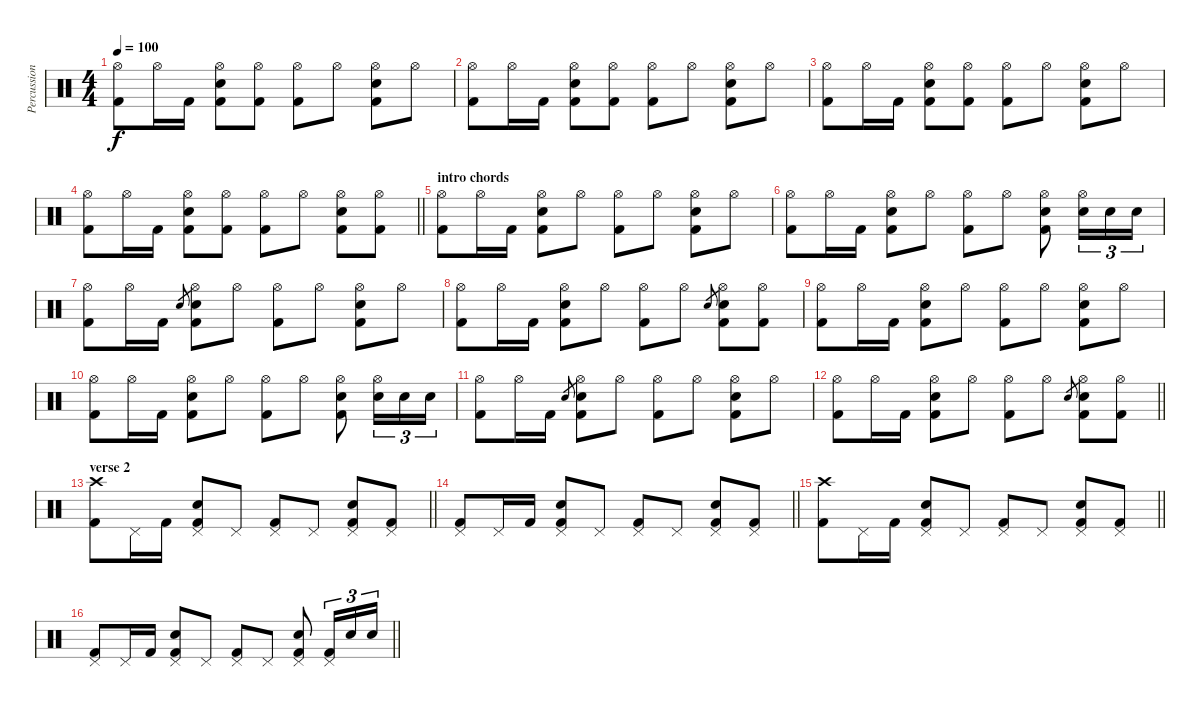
\track ("Percussion" "Percussion") {instrument percussion}
\staff {score}
\articulation defaults
\ts (4 4)
\tempo 100
\clef neutral
\ks c
("Hi-Hat (open)" "Kick (hit) 2").8{dy f} "Hi-Hat (open)".16 "Kick (hit) 2".16 ("Hi-Hat (open)" "Electric Snare (hit)" "Kick (hit) 2").8 ("Hi-Hat (open)" "Kick (hit) 2").8 ("Hi-Hat (open)" "Kick (hit) 2").8 "Hi-Hat (open)".8 ("Hi-Hat (open)" "Electric Snare (hit)" "Kick (hit) 2").8 "Hi-Hat (open)".8 |
("Hi-Hat (open)" "Kick (hit) 2").8 "Hi-Hat (open)".16 "Kick (hit) 2".16 ("Hi-Hat (open)" "Electric Snare (hit)" "Kick (hit) 2").8 ("Hi-Hat (open)" "Kick (hit) 2").8 ("Hi-Hat (open)" "Kick (hit) 2").8 "Hi-Hat (open)".8 ("Hi-Hat (open)" "Electric Snare (hit)" "Kick (hit) 2").8 "Hi-Hat (open)".8 |
("Hi-Hat (open)" "Kick (hit) 2").8 "Hi-Hat (open)".16 "Kick (hit) 2".16 ("Hi-Hat (open)" "Electric Snare (hit)" "Kick (hit) 2").8 ("Hi-Hat (open)" "Kick (hit) 2").8 ("Hi-Hat (open)" "Kick (hit) 2").8 "Hi-Hat (open)".8 ("Hi-Hat (open)" "Electric Snare (hit)" "Kick (hit) 2").8 "Hi-Hat (open)".8 |
\barLineRight lightlight
("Hi-Hat (open)" "Kick (hit) 2").8 "Hi-Hat (open)".16 "Kick (hit) 2".16 ("Hi-Hat (open)" "Electric Snare (hit)" "Kick (hit) 2").8 ("Hi-Hat (open)" "Kick (hit) 2").8 ("Hi-Hat (open)" "Kick (hit) 2").8 "Hi-Hat (open)".8 ("Hi-Hat (open)" "Electric Snare (hit)" "Kick (hit) 2").8 ("Hi-Hat (open)" "Kick (hit) 2").8 |
\section ("" "intro chords")
("Hi-Hat (open)" "Kick (hit) 2").8 "Hi-Hat (open)".16 "Kick (hit) 2".16 ("Hi-Hat (open)" "Electric Snare (hit)" "Kick (hit) 2").8 "Hi-Hat (open)".8 ("Hi-Hat (open)" "Kick (hit) 2").8 "Hi-Hat (open)".8 ("Hi-Hat (open)" "Electric Snare (hit)" "Kick (hit) 2").8 "Hi-Hat (open)".8 |
("Hi-Hat (open)" "Kick (hit) 2").8 "Hi-Hat (open)".16 "Kick (hit) 2".16 ("Hi-Hat (open)" "Electric Snare (hit)" "Kick (hit) 2").8 "Hi-Hat (open)".8 ("Hi-Hat (open)" "Kick (hit) 2").8 "Hi-Hat (open)".8 ("Hi-Hat (open)" "Electric Snare (hit)" "Kick (hit) 2").8 ("Hi-Hat (open)" "Electric Snare (hit)").16{tu (3 2)} "Electric Snare (hit)".16{tu (3 2)} "Electric Snare (hit)".16{tu (3 2)} |
("Hi-Hat (open)" "Kick (hit) 2").8 "Hi-Hat (open)".16 "Kick (hit) 2".16 "Electric Snare (hit)".8{gr} ("Hi-Hat (open)" "Electric Snare (hit)" "Kick (hit) 2").8 "Hi-Hat (open)".8 ("Hi-Hat (open)" "Kick (hit) 2").8 "Hi-Hat (open)".8 ("Hi-Hat (open)" "Electric Snare (hit)" "Kick (hit) 2").8 "Hi-Hat (open)".8 |
("Hi-Hat (open)" "Kick (hit) 2").8 "Hi-Hat (open)".16 "Kick (hit) 2".16 ("Hi-Hat (open)" "Electric Snare (hit)" "Kick (hit) 2").8 "Hi-Hat (open)".8 ("Hi-Hat (open)" "Kick (hit) 2").8 "Hi-Hat (open)".8 "Electric Snare (hit)".8{gr} ("Hi-Hat (open)" "Electric Snare (hit)" "Kick (hit) 2").8 ("Hi-Hat (open)" "Kick (hit) 2").8 |
("Hi-Hat (open)" "Kick (hit) 2").8 "Hi-Hat (open)".16 "Kick (hit) 2".16 ("Hi-Hat (open)" "Electric Snare (hit)" "Kick (hit) 2").8 "Hi-Hat (open)".8 ("Hi-Hat (open)" "Kick (hit) 2").8 "Hi-Hat (open)".8 ("Hi-Hat (open)" "Electric Snare (hit)" "Kick (hit) 2").8 "Hi-Hat (open)".8 |
("Hi-Hat (open)" "Kick (hit) 2").8 "Hi-Hat (open)".16 "Kick (hit) 2".16 ("Hi-Hat (open)" "Electric Snare (hit)" "Kick (hit) 2").8 "Hi-Hat (open)".8 ("Hi-Hat (open)" "Kick (hit) 2").8 "Hi-Hat (open)".8 ("Hi-Hat (open)" "Electric Snare (hit)" "Kick (hit) 2").8 ("Hi-Hat (open)" "Electric Snare (hit)").16{tu (3 2)} "Electric Snare (hit)".16{tu (3 2)} "Electric Snare (hit)".16{tu (3 2)} |
("Hi-Hat (open)" "Kick (hit) 2").8 "Hi-Hat (open)".16 "Kick (hit) 2".16 "Electric Snare (hit)".8{gr} ("Hi-Hat (open)" "Electric Snare (hit)" "Kick (hit) 2").8 "Hi-Hat (open)".8 ("Hi-Hat (open)" "Kick (hit) 2").8 "Hi-Hat (open)".8 ("Hi-Hat (open)" "Electric Snare (hit)" "Kick (hit) 2").8 "Hi-Hat (open)".8 |
\barLineRight lightlight
("Hi-Hat (open)" "Kick (hit) 2").8 "Hi-Hat (open)".16 "Kick (hit) 2".16 ("Hi-Hat (open)" "Electric Snare (hit)" "Kick (hit) 2").8 "Hi-Hat (open)".8 ("Hi-Hat (open)" "Kick (hit) 2").8 "Hi-Hat (open)".8 "Electric Snare (hit)".8{gr} ("Hi-Hat (open)" "Electric Snare (hit)" "Kick (hit) 2").8 ("Hi-Hat (open)" "Kick (hit) 2").8 |
\section ("" "verse 2")
\barLineRight lightlight
("Crash high (hit)" "Kick (hit) 2").8 "Pedal Hi-Hat (hit)".16 "Kick (hit) 2".16 ("Pedal Hi-Hat (hit)" "Electric Snare (hit)" "Kick (hit) 2").8 "Pedal Hi-Hat (hit)".8 ("Pedal Hi-Hat (hit)" "Kick (hit) 2").8 "Pedal Hi-Hat (hit)".8 ("Pedal Hi-Hat (hit)" "Electric Snare (hit)" "Kick (hit) 2").8 ("Pedal Hi-Hat (hit)" "Kick (hit) 2").8 |
\barLineRight lightlight
("Pedal Hi-Hat (hit)" "Kick (hit) 2").8 "Pedal Hi-Hat (hit)".16 "Kick (hit) 2".16 ("Pedal Hi-Hat (hit)" "Electric Snare (hit)" "Kick (hit) 2").8 "Pedal Hi-Hat (hit)".8 ("Pedal Hi-Hat (hit)" "Kick (hit) 2").8 "Pedal Hi-Hat (hit)".8 ("Pedal Hi-Hat (hit)" "Electric Snare (hit)" "Kick (hit) 2").8 ("Pedal Hi-Hat (hit)" "Kick (hit) 2").8 |
\barLineRight lightlight
("Crash high (hit)" "Kick (hit) 2").8 "Pedal Hi-Hat (hit)".16 "Kick (hit) 2".16 ("Pedal Hi-Hat (hit)" "Electric Snare (hit)" "Kick (hit) 2").8 "Pedal Hi-Hat (hit)".8 ("Pedal Hi-Hat (hit)" "Kick (hit) 2").8 "Pedal Hi-Hat (hit)".8 ("Pedal Hi-Hat (hit)" "Electric Snare (hit)" "Kick (hit) 2").8 ("Pedal Hi-Hat (hit)" "Kick (hit) 2").8 |
\barLineRight lightlight
("Pedal Hi-Hat (hit)" "Kick (hit) 2").8 "Pedal Hi-Hat (hit)".16 "Kick (hit) 2".16 ("Pedal Hi-Hat (hit)" "Electric Snare (hit)" "Kick (hit) 2").8 "Pedal Hi-Hat (hit)".8 ("Pedal Hi-Hat (hit)" "Kick (hit) 2").8 "Pedal Hi-Hat (hit)".8 ("Pedal Hi-Hat (hit)" "Electric Snare (hit)" "Kick (hit) 2").8 ("Pedal Hi-Hat (hit)" "Kick (hit) 2").16{tu (3 2)} "Electric Snare (hit)".16{tu (3 2)} "Electric Snare (hit)".16{tu (3 2)}
